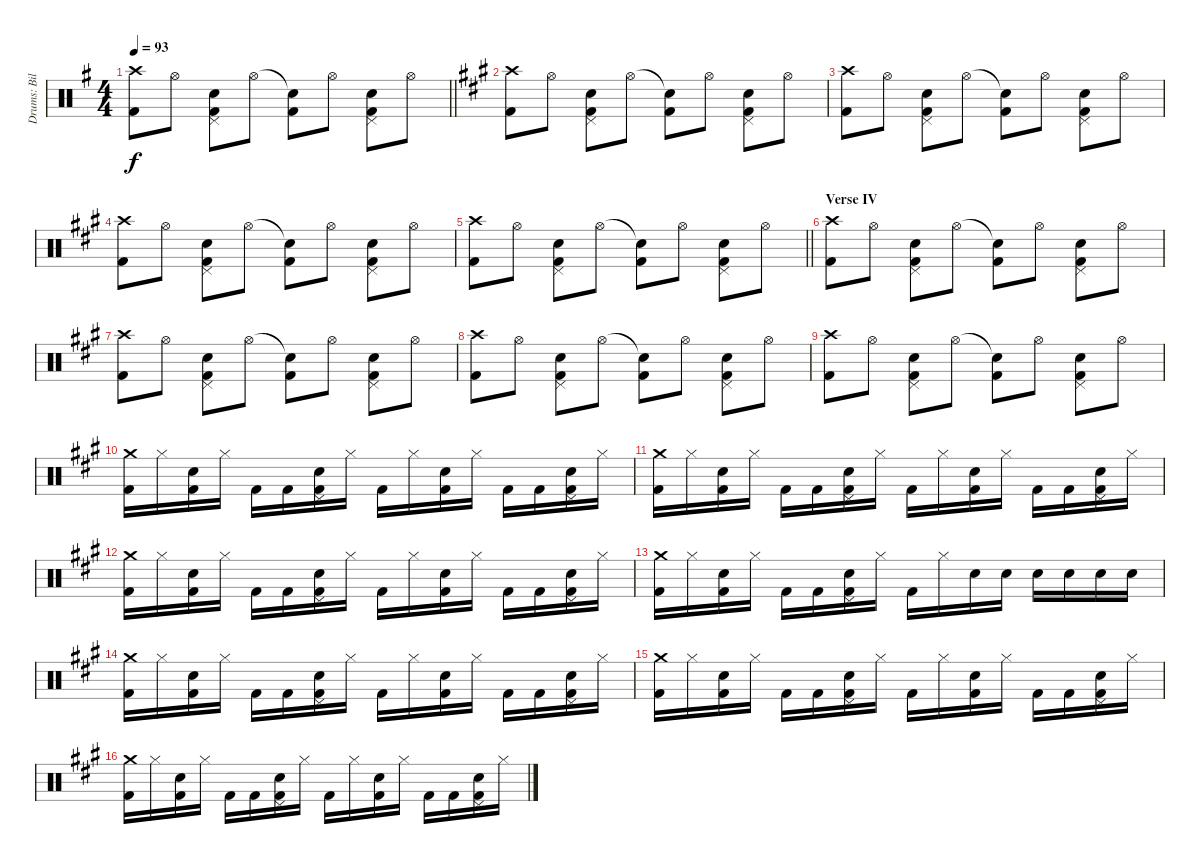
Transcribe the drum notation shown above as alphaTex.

\track ("Drums: Bill" "Drums: Bil") {instrument percussion}
\staff {score}
\articulation defaults
\ts (4 4)
\tempo 93
\clef neutral
\barLineRight lightlight
\ks g
("Crash high (hit)" "Kick (hit) 2").8{dy f} "Hi-Hat (open)".8 ("Pedal Hi-Hat (hit)" "Snare (hit) 2" "Kick (hit) 2").8 "Hi-Hat (open)".8 ("Snare (hit)"{t} "Kick (hit) 2").8 "Hi-Hat (open)".8 ("Pedal Hi-Hat (hit)" "Snare (hit) 2" "Kick (hit) 2").8 "Hi-Hat (open)".8 |
\ks a
("Crash high (hit)" "Kick (hit) 2").8 "Hi-Hat (open)".8 ("Pedal Hi-Hat (hit)" "Snare (hit) 2" "Kick (hit) 2").8 "Hi-Hat (open)".8 ("Snare (hit)"{t} "Kick (hit) 2").8 "Hi-Hat (open)".8 ("Pedal Hi-Hat (hit)" "Snare (hit) 2" "Kick (hit) 2").8 "Hi-Hat (open)".8 |
("Crash high (hit)" "Kick (hit) 2").8 "Hi-Hat (open)".8 ("Pedal Hi-Hat (hit)" "Snare (hit) 2" "Kick (hit) 2").8 "Hi-Hat (open)".8 ("Snare (hit)"{t} "Kick (hit) 2").8 "Hi-Hat (open)".8 ("Pedal Hi-Hat (hit)" "Snare (hit) 2" "Kick (hit) 2").8 "Hi-Hat (open)".8 |
("Crash high (hit)" "Kick (hit) 2").8 "Hi-Hat (open)".8 ("Pedal Hi-Hat (hit)" "Snare (hit) 2" "Kick (hit) 2").8 "Hi-Hat (open)".8 ("Snare (hit)"{t} "Kick (hit) 2").8 "Hi-Hat (open)".8 ("Pedal Hi-Hat (hit)" "Snare (hit) 2" "Kick (hit) 2").8 "Hi-Hat (open)".8 |
\barLineRight lightlight
("Crash high (hit)" "Kick (hit) 2").8 "Hi-Hat (open)".8 ("Pedal Hi-Hat (hit)" "Snare (hit) 2" "Kick (hit) 2").8 "Hi-Hat (open)".8 ("Snare (hit)"{t} "Kick (hit) 2").8 "Hi-Hat (open)".8 ("Pedal Hi-Hat (hit)" "Snare (hit) 2" "Kick (hit) 2").8 "Hi-Hat (open)".8 |
\section ("" "Verse IV")
("Crash high (hit)" "Kick (hit) 2").8 "Hi-Hat (open)".8 ("Pedal Hi-Hat (hit)" "Snare (hit) 2" "Kick (hit) 2").8 "Hi-Hat (open)".8 ("Snare (hit)"{t} "Kick (hit) 2").8 "Hi-Hat (open)".8 ("Pedal Hi-Hat (hit)" "Snare (hit) 2" "Kick (hit) 2").8 "Hi-Hat (open)".8 |
("Crash high (hit)" "Kick (hit) 2").8 "Hi-Hat (open)".8 ("Pedal Hi-Hat (hit)" "Snare (hit) 2" "Kick (hit) 2").8 "Hi-Hat (open)".8 ("Snare (hit)"{t} "Kick (hit) 2").8 "Hi-Hat (open)".8 ("Pedal Hi-Hat (hit)" "Snare (hit) 2" "Kick (hit) 2").8 "Hi-Hat (open)".8 |
("Crash high (hit)" "Kick (hit) 2").8 "Hi-Hat (open)".8 ("Pedal Hi-Hat (hit)" "Snare (hit) 2" "Kick (hit) 2").8 "Hi-Hat (open)".8 ("Snare (hit)"{t} "Kick (hit) 2").8 "Hi-Hat (open)".8 ("Pedal Hi-Hat (hit)" "Snare (hit) 2" "Kick (hit) 2").8 "Hi-Hat (open)".8 |
("Crash high (hit)" "Kick (hit) 2").8 "Hi-Hat (open)".8 ("Pedal Hi-Hat (hit)" "Snare (hit) 2" "Kick (hit) 2").8 "Hi-Hat (open)".8 ("Snare (hit)"{t} "Kick (hit) 2").8 "Hi-Hat (open)".8 ("Pedal Hi-Hat (hit)" "Snare (hit) 2" "Kick (hit) 2").8 "Hi-Hat (open)".8 |
("Crash medium (hit)" "Kick (hit) 2").16 "Hi-Hat (closed)".16 ("Snare (hit) 2" "Kick (hit) 2").16 "Hi-Hat (closed)".16 "Kick (hit) 2".16 "Kick (hit) 2".16 ("Pedal Hi-Hat (hit)" "Snare (hit) 2" "Kick (hit) 2").16 "Hi-Hat (closed)".16 "Kick (hit) 2".16 "Hi-Hat (closed)".16 ("Snare (hit) 2" "Kick (hit) 2").16 "Hi-Hat (closed)".16 "Kick (hit) 2".16 "Kick (hit) 2".16 ("Pedal Hi-Hat (hit)" "Snare (hit) 2" "Kick (hit) 2").16 "Hi-Hat (closed)".16 |
("Crash medium (hit)" "Kick (hit) 2").16 "Hi-Hat (closed)".16 ("Snare (hit) 2" "Kick (hit) 2").16 "Hi-Hat (closed)".16 "Kick (hit) 2".16 "Kick (hit) 2".16 ("Pedal Hi-Hat (hit)" "Snare (hit) 2" "Kick (hit) 2").16 "Hi-Hat (closed)".16 "Kick (hit) 2".16 "Hi-Hat (closed)".16 ("Snare (hit) 2" "Kick (hit) 2").16 "Hi-Hat (closed)".16 "Kick (hit) 2".16 "Kick (hit) 2".16 ("Pedal Hi-Hat (hit)" "Snare (hit) 2" "Kick (hit) 2").16 "Hi-Hat (closed)".16 |
("Crash medium (hit)" "Kick (hit) 2").16 "Hi-Hat (closed)".16 ("Snare (hit) 2" "Kick (hit) 2").16 "Hi-Hat (closed)".16 "Kick (hit) 2".16 "Kick (hit) 2".16 ("Pedal Hi-Hat (hit)" "Snare (hit) 2" "Kick (hit) 2").16 "Hi-Hat (closed)".16 "Kick (hit) 2".16 "Hi-Hat (closed)".16 ("Snare (hit) 2" "Kick (hit) 2").16 "Hi-Hat (closed)".16 "Kick (hit) 2".16 "Kick (hit) 2".16 ("Pedal Hi-Hat (hit)" "Snare (hit) 2" "Kick (hit) 2").16 "Hi-Hat (closed)".16 |
("Crash medium (hit)" "Kick (hit) 2").16 "Hi-Hat (closed)".16 ("Snare (hit) 2" "Kick (hit) 2").16 "Hi-Hat (closed)".16 "Kick (hit) 2".16 "Kick (hit) 2".16 ("Pedal Hi-Hat (hit)" "Snare (hit) 2" "Kick (hit) 2").16 "Hi-Hat (closed)".16 "Kick (hit) 2".16 "Hi-Hat (closed)".16 "Snare (hit) 2".16 "Snare (hit) 2".16 "Snare (hit) 2".16 "Snare (hit) 2".16 "Snare (hit) 2".16 "Snare (hit) 2".16 |
("Crash medium (hit)" "Kick (hit) 2").16 "Hi-Hat (closed)".16 ("Snare (hit) 2" "Kick (hit) 2").16 "Hi-Hat (closed)".16 "Kick (hit) 2".16 "Kick (hit) 2".16 ("Pedal Hi-Hat (hit)" "Snare (hit) 2" "Kick (hit) 2").16 "Hi-Hat (closed)".16 "Kick (hit) 2".16 "Hi-Hat (closed)".16 ("Snare (hit) 2" "Kick (hit) 2").16 "Hi-Hat (closed)".16 "Kick (hit) 2".16 "Kick (hit) 2".16 ("Pedal Hi-Hat (hit)" "Snare (hit) 2" "Kick (hit) 2").16 "Hi-Hat (closed)".16 |
("Crash medium (hit)" "Kick (hit) 2").16 "Hi-Hat (closed)".16 ("Snare (hit) 2" "Kick (hit) 2").16 "Hi-Hat (closed)".16 "Kick (hit) 2".16 "Kick (hit) 2".16 ("Pedal Hi-Hat (hit)" "Snare (hit) 2" "Kick (hit) 2").16 "Hi-Hat (closed)".16 "Kick (hit) 2".16 "Hi-Hat (closed)".16 ("Snare (hit) 2" "Kick (hit) 2").16 "Hi-Hat (closed)".16 "Kick (hit) 2".16 "Kick (hit) 2".16 ("Pedal Hi-Hat (hit)" "Snare (hit) 2" "Kick (hit) 2").16 "Hi-Hat (closed)".16 |
("Crash medium (hit)" "Kick (hit) 2").16 "Hi-Hat (closed)".16 ("Snare (hit) 2" "Kick (hit) 2").16 "Hi-Hat (closed)".16 "Kick (hit) 2".16 "Kick (hit) 2".16 ("Pedal Hi-Hat (hit)" "Snare (hit) 2" "Kick (hit) 2").16 "Hi-Hat (closed)".16 "Kick (hit) 2".16 "Hi-Hat (closed)".16 ("Snare (hit) 2" "Kick (hit) 2").16 "Hi-Hat (closed)".16 "Kick (hit) 2".16 "Kick (hit) 2".16 ("Pedal Hi-Hat (hit)" "Snare (hit) 2" "Kick (hit) 2").16 "Hi-Hat (closed)".16
